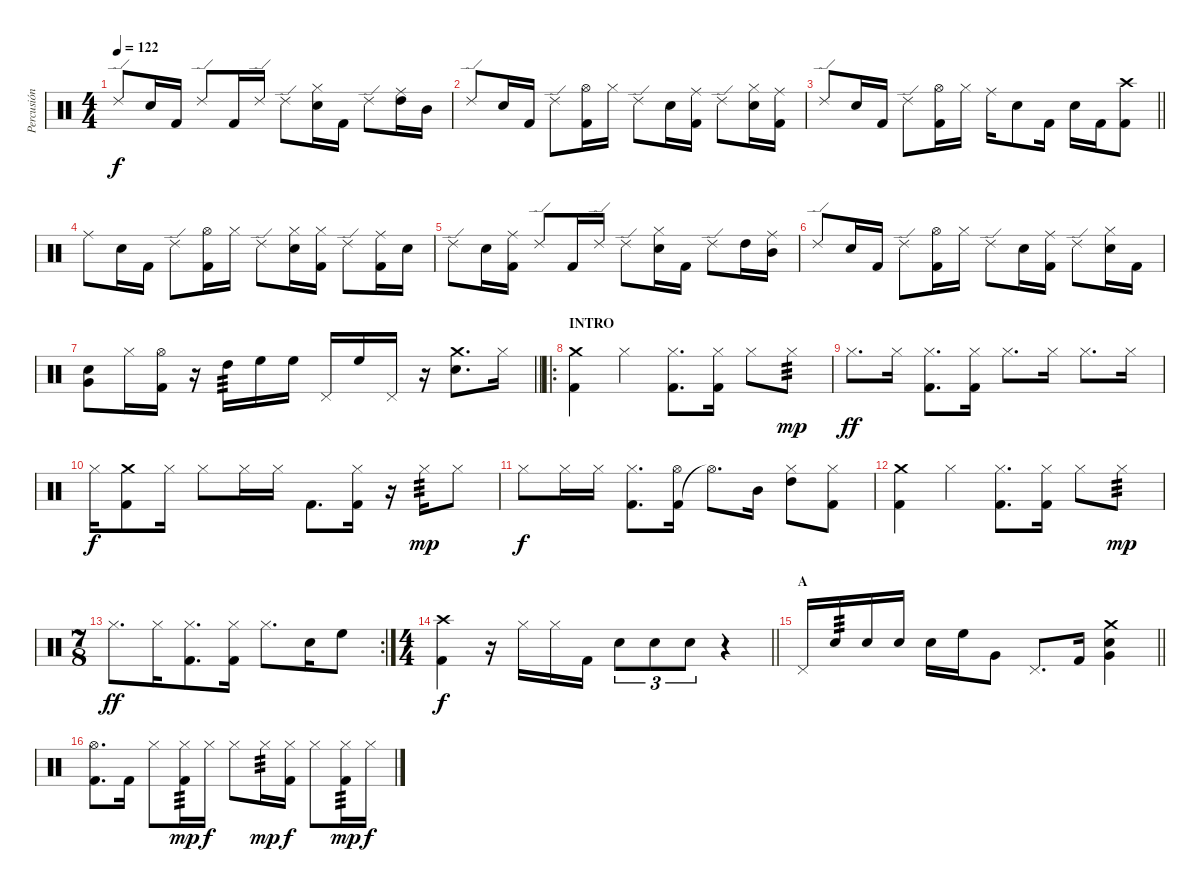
\track ("Percusión" "Percusión") {instrument percussion}
\staff {score}
\articulation defaults
\ts (4 4)
\tempo 122
\clef neutral
\ks c "Ride (edge) 2".8{dy f} "Electric Snare (hit)".16 "Kick (hit) 2".16 "Ride (edge) 2".8 "Kick (hit) 2".16 "Ride (edge) 2".16 "Ride (edge) 2".8
("Hi-Hat (closed)" "Electric Snare (hit)").16 "Kick (hit) 2".16 "Ride (edge) 2".8 ("Ride (middle)" "High Tom (hit)").16 "Mid Tom (hit)".16 |
"Ride (edge) 2".8 "Electric Snare (hit)".16 "Kick (hit) 2".16 "Ride (edge) 2".8 ("Hi-Hat (open)" "Kick (hit) 2").16 "Hi-Hat (closed)".16 "Ride (edge) 2".8 "Electric Snare (hit)".16 ("Ride (middle)" "Kick (hit) 2").16 "Ride (edge) 2".8 ("Hi-Hat (closed)" "Electric Snare (hit)").16 ("Ride (middle)" "Kick (hit) 2").16 |
\barLineRight lightlight "Ride (edge) 2".8 "Electric Snare (hit)".16 "Kick (hit) 2".16 "Ride (edge) 2".8
("Hi-Hat (open)" "Kick (hit) 2").16 "Hi-Hat (closed)".16 "Ride (middle)".16 "Electric Snare (hit)".8 "Kick (hit) 2".16 "Electric Snare (hit)".16 "Kick (hit) 2".16 ("Crash high (hit)" "Kick (hit) 2").8 |
"Ride (middle)".8 "Electric Snare (hit)".16 "Kick (hit) 2".16 "Ride (edge) 2".8 ("Hi-Hat (open)" "Kick (hit) 2").16 "Hi-Hat (closed)".16 "Ride (edge) 2".8 ("Electric Snare (hit)" "Hi-Hat (closed)").16 ("Kick (hit) 2" "Hi-Hat (closed)").16 "Ride (edge) 2".8 ("Ride (middle)" "Kick (hit) 2").16 "Electric Snare (hit)".16 |
"Ride (edge) 2".8 "Electric Snare (hit)".16 ("Ride (middle)" "Kick (hit) 2").16 "Ride (edge) 2".8 "Kick (hit) 2".16 "Ride (edge) 2".16 "Ride (edge) 2".8 ("Hi-Hat (closed)" "Electric Snare (hit)").16 "Kick (hit) 2".16 "Ride (edge) 2".8 "High Tom (hit)".16 ("Ride (middle)" "Mid Tom (hit)").16 |
"Ride (edge) 2".8 "Electric Snare (hit)".16 "Kick (hit) 2".16 "Ride (edge) 2".8 ("Hi-Hat (open)" "Kick (hit) 2").16 "Hi-Hat (closed)".16 "Ride (edge) 2".8 "Electric Snare (hit)".16 ("Ride (middle)" "Kick (hit) 2").16 "Ride (edge) 2".8 ("Hi-Hat (closed)" "Electric Snare (hit)").16 "Kick (hit) 2".16 |
\barLineRight lightlight
("Electric Snare (hit)" "Very Low Tom (hit)").8 "Hi-Hat (closed)".16 ("Hi-Hat (open)" "Kick (hit) 2").16 r.16 "High Tom (hit)".16{tp 3} "High Floor Tom (hit)".16 "High Floor Tom (hit)".16 "Pedal Hi-Hat (hit)".16 "High Floor Tom (hit)".16 "Pedal Hi-Hat (hit)".16 r.16 ("Electric Snare (hit)" "Crash medium (hit)").8{d} "Hi-Hat (closed)".16 |
\ro
\section ("" "INTRO")
("Crash medium (hit)" "Kick (hit) 2").4 "Hi-Hat (closed)".4 ("Hi-Hat (closed)" "Kick (hit) 2").8{d} ("Hi-Hat (closed)" "Kick (hit) 2").16 "Hi-Hat (closed)".8 "Hi-Hat (closed)".8{tp 3 dy mp} |
"Hi-Hat (closed)".8{d dy ff} "Hi-Hat (closed)".16 ("Hi-Hat (closed)" "Kick (hit) 2").8{d} ("Hi-Hat (closed)" "Kick (hit) 2").16 "Hi-Hat (closed)".8{d} "Hi-Hat (closed)".16 "Hi-Hat (closed)".8{d} "Hi-Hat (closed)".16 |
"Hi-Hat (closed)".16{dy f} ("Crash medium (hit)" "Kick (hit) 2").8 "Hi-Hat (closed)".16 "Hi-Hat (closed)".8 "Hi-Hat (closed)".16 "Hi-Hat (closed)".16 "Kick (hit) 2".8{d} ("Hi-Hat (closed)" "Kick (hit) 2").16 r.16 "Hi-Hat (closed)".16{tp 3 dy mp} "Hi-Hat (closed)".8 |
"Hi-Hat (closed)".8{dy f} "Hi-Hat (closed)".16 "Hi-Hat (closed)".16 ("Hi-Hat (closed)" "Kick (hit) 2").8{d} ("Kick (hit) 2" "Hi-Hat (open)").16 "Hi-Hat (open)"{t}.8{d} "Mid Tom (hit)".16 ("Hi-Hat (closed)" "High Tom (hit)").8 ("Hi-Hat (closed)" "Kick (hit) 2").8 |
("Crash medium (hit)" "Kick (hit) 2").4 "Hi-Hat (closed)".4 ("Hi-Hat (closed)" "Kick (hit) 2").8{d} ("Hi-Hat (closed)" "Kick (hit) 2").16 "Hi-Hat (closed)".8 "Hi-Hat (closed)".8{tp 3 dy mp} |
\rc 2
\ts (7 8)
"Hi-Hat (closed)".8{d dy ff} "Hi-Hat (closed)".16 ("Hi-Hat (closed)" "Kick (hit) 2").8{d} ("Hi-Hat (closed)" "Kick (hit) 2").16 "Hi-Hat (closed)".8{d} "Electric Snare (hit)".16 "High Floor Tom (hit)".8 |
\ts (4 4)
\barLineRight lightlight
("Crash high (hit)" "Kick (hit) 2").4{dy f} r.16 "Hi-Hat (closed)".16 "Hi-Hat (closed)".16 "Kick (hit) 2".16 "Electric Snare (hit)".8{tu (3 2)} "Electric Snare (hit)".8{tu (3 2)} "Electric Snare (hit)".8{tu (3 2)} r.4 |
\section ("" "A")
\barLineRight lightlight "Pedal Hi-Hat (hit)".16 "Electric Snare (hit)".16{tp 3} "Electric Snare (hit)".16 "Electric Snare (hit)".16 "Electric Snare (hit)".16 "High Floor Tom (hit)".16 "Very Low Tom (hit)".8 "Pedal Hi-Hat (hit)".8{d} "Kick (hit) 2".16
("Crash medium (hit)" "Very Low Tom (hit)" "Electric Snare (hit)").4 |
("Hi-Hat (open)" "Kick (hit) 2").8{d} "Kick (hit) 2".16 "Hi-Hat (closed)".8 ("Kick (hit) 2" "Hi-Hat (closed)").16{tp 3 dy mp} "Hi-Hat (closed)".16{dy f} "Hi-Hat (closed)".8 "Hi-Hat (closed)".16{tp 3 dy mp} ("Kick (hit) 2" "Hi-Hat (closed)").16{dy f} "Hi-Hat (closed)".8 ("Kick (hit) 2" "Hi-Hat (closed)").16{tp 3 dy mp} "Hi-Hat (closed)".16{dy f}
